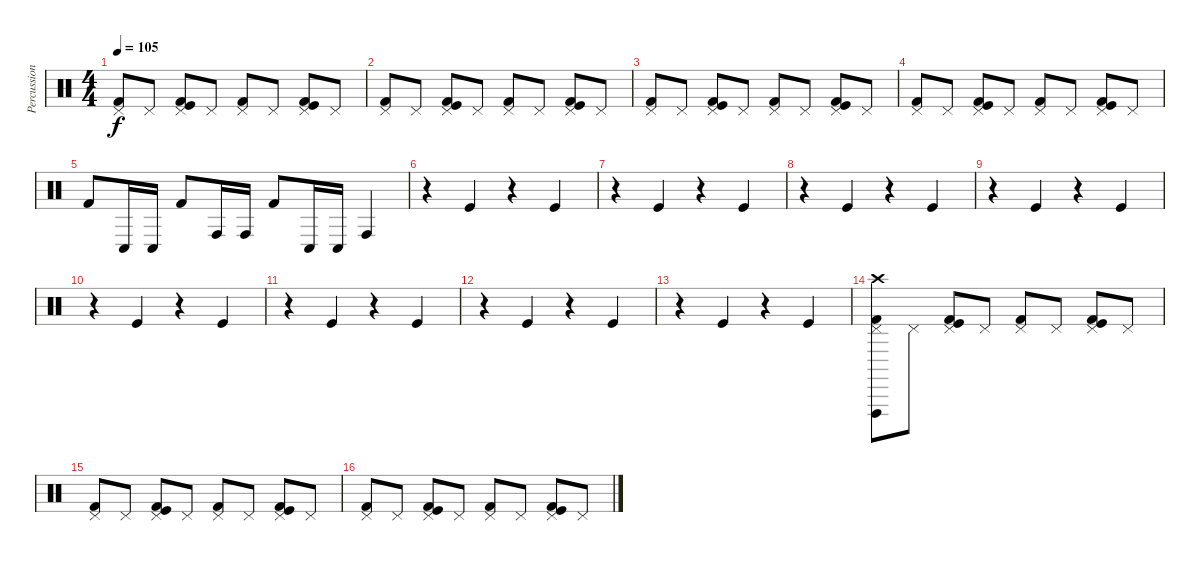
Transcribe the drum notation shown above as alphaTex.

\track ("Percussion" "Percussion") {instrument percussion}
\staff {score}
\articulation defaults
\ts (4 4)
\tempo 105
\clef neutral
\ks aminor
("Kick (hit) 2" "Pedal Hi-Hat (hit)").8{dy f} "Pedal Hi-Hat (hit)".8 ("Kick (hit)" "Pedal Hi-Hat (hit)" "Kick (hit) 2").8 "Pedal Hi-Hat (hit)".8 ("Kick (hit) 2" "Pedal Hi-Hat (hit)").8 "Pedal Hi-Hat (hit)".8 ("Kick (hit)" "Pedal Hi-Hat (hit)" "Kick (hit) 2").8 "Pedal Hi-Hat (hit)".8 |
("Kick (hit) 2" "Pedal Hi-Hat (hit)").8 "Pedal Hi-Hat (hit)".8 ("Kick (hit)" "Pedal Hi-Hat (hit)" "Kick (hit) 2").8 "Pedal Hi-Hat (hit)".8 ("Kick (hit) 2" "Pedal Hi-Hat (hit)").8 "Pedal Hi-Hat (hit)".8 ("Kick (hit)" "Pedal Hi-Hat (hit)" "Kick (hit) 2").8 "Pedal Hi-Hat (hit)".8 |
("Kick (hit) 2" "Pedal Hi-Hat (hit)").8 "Pedal Hi-Hat (hit)".8 ("Kick (hit)" "Pedal Hi-Hat (hit)" "Kick (hit) 2").8 "Pedal Hi-Hat (hit)".8 ("Kick (hit) 2" "Pedal Hi-Hat (hit)").8 "Pedal Hi-Hat (hit)".8 ("Kick (hit)" "Pedal Hi-Hat (hit)" "Kick (hit) 2").8 "Pedal Hi-Hat (hit)".8 |
("Kick (hit) 2" "Pedal Hi-Hat (hit)").8 "Pedal Hi-Hat (hit)".8 ("Kick (hit)" "Pedal Hi-Hat (hit)" "Kick (hit) 2").8 "Pedal Hi-Hat (hit)".8 ("Kick (hit) 2" "Pedal Hi-Hat (hit)").8 "Pedal Hi-Hat (hit)".8 ("Kick (hit)" "Pedal Hi-Hat (hit)" "Kick (hit) 2").8 "Pedal Hi-Hat (hit)".8 |
"Kick (hit) 2".8 "Conga low (hit)".16 "Conga low (hit)".16 "Kick (hit) 2".8 "Conga high (hit)".16 "Conga high (hit)".16 "Kick (hit) 2".8 "Conga low (hit)".16 "Conga low (hit)".16 "Conga high (hit)".4 |
r.4 "Kick (hit)".4 r.4 "Kick (hit)".4 |
r.4 "Kick (hit)".4 r.4 "Kick (hit)".4 |
r.4 "Kick (hit)".4 r.4 "Kick (hit)".4 |
r.4 "Kick (hit)".4 r.4 "Kick (hit)".4 |
r.4 "Kick (hit)".4 r.4 "Kick (hit)".4 |
r.4 "Kick (hit)".4 r.4 "Kick (hit)".4 |
r.4 "Kick (hit)".4 r.4 "Kick (hit)".4 |
r.4 "Kick (hit)".4 r.4 "Kick (hit)".4 |
("Kick (hit) 2" "Pedal Hi-Hat (hit)" "Vibraslap (hit)" "Crash high (hit)").8 "Pedal Hi-Hat (hit)".8 ("Kick (hit)" "Pedal Hi-Hat (hit)" "Kick (hit) 2").8 "Pedal Hi-Hat (hit)".8 ("Kick (hit) 2" "Pedal Hi-Hat (hit)").8 "Pedal Hi-Hat (hit)".8 ("Kick (hit)" "Pedal Hi-Hat (hit)" "Kick (hit) 2").8 "Pedal Hi-Hat (hit)".8 |
("Kick (hit) 2" "Pedal Hi-Hat (hit)").8 "Pedal Hi-Hat (hit)".8 ("Kick (hit)" "Pedal Hi-Hat (hit)" "Kick (hit) 2").8 "Pedal Hi-Hat (hit)".8 ("Kick (hit) 2" "Pedal Hi-Hat (hit)").8 "Pedal Hi-Hat (hit)".8 ("Kick (hit)" "Pedal Hi-Hat (hit)" "Kick (hit) 2").8 "Pedal Hi-Hat (hit)".8 |
("Kick (hit) 2" "Pedal Hi-Hat (hit)").8 "Pedal Hi-Hat (hit)".8 ("Kick (hit)" "Pedal Hi-Hat (hit)" "Kick (hit) 2").8 "Pedal Hi-Hat (hit)".8 ("Kick (hit) 2" "Pedal Hi-Hat (hit)").8 "Pedal Hi-Hat (hit)".8 ("Kick (hit)" "Pedal Hi-Hat (hit)" "Kick (hit) 2").8 "Pedal Hi-Hat (hit)".8
